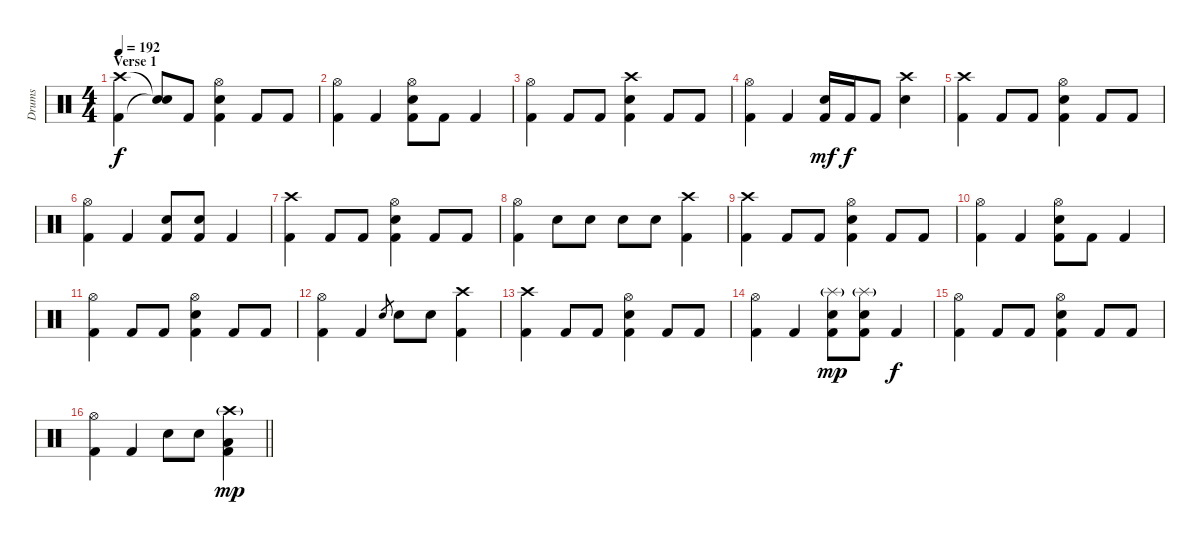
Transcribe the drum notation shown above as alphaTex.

\track ("Drums" "Drums") {instrument percussion}
\staff {score}
\articulation defaults
\ts (4 4)
\section ("" "Verse 1")
\tempo 192
\clef neutral
\ks c
("Crash high (hit)" "Kick (hit) 2").4{dy f} ("Snare (hit)"{t} "Snare (hit)"{t}).8 "Kick (hit) 2".8 ("Hi-Hat (open)" "Snare (hit) 2" "Kick (hit) 2").4 "Kick (hit) 2".8 "Kick (hit) 2".8 |
("Hi-Hat (open)" "Kick (hit) 2").4 "Kick (hit) 2".4 ("Hi-Hat (open)" "Snare (hit) 2" "Kick (hit) 2").8 "Kick (hit) 2".8 "Kick (hit) 2".4 |
("Hi-Hat (open)" "Kick (hit) 2").4 "Kick (hit) 2".8 "Kick (hit) 2".8 ("Crash high (hit)" "Snare (hit) 2" "Kick (hit) 2").4 "Kick (hit) 2".8 "Kick (hit) 2".8 |
("Hi-Hat (open)" "Kick (hit) 2").4 "Kick (hit) 2".4 ("Snare (hit) 2" "Kick (hit) 2").16{dy mf} "Kick (hit) 2".16{dy f} "Kick (hit) 2".8 ("Crash high (hit)" "Snare (hit) 2").4 |
("Crash high (hit)" "Kick (hit) 2").4 "Kick (hit) 2".8 "Kick (hit) 2".8 ("Hi-Hat (open)" "Snare (hit) 2" "Kick (hit) 2").4 "Kick (hit) 2".8 "Kick (hit) 2".8 |
("Hi-Hat (open)" "Kick (hit) 2").4 "Kick (hit) 2".4 ("Snare (hit) 2" "Kick (hit) 2").8 ("Snare (hit) 2" "Kick (hit) 2").8 "Kick (hit) 2".4 |
("Crash high (hit)" "Kick (hit) 2").4 "Kick (hit) 2".8 "Kick (hit) 2".8 ("Hi-Hat (open)" "Snare (hit) 2" "Kick (hit) 2").4 "Kick (hit) 2".8 "Kick (hit) 2".8 |
("Hi-Hat (open)" "Kick (hit) 2").4 "Snare (hit) 2".8 "Snare (hit) 2".8 "Snare (hit) 2".8 "Snare (hit) 2".8 ("Crash high (hit)" "Kick (hit) 2").4 |
("Crash high (hit)" "Kick (hit) 2").4 "Kick (hit) 2".8 "Kick (hit) 2".8 ("Hi-Hat (open)" "Snare (hit) 2" "Kick (hit) 2").4 "Kick (hit) 2".8 "Kick (hit) 2".8 |
("Hi-Hat (open)" "Kick (hit) 2").4 "Kick (hit) 2".4 ("Hi-Hat (open)" "Snare (hit) 2" "Kick (hit) 2").8 "Kick (hit) 2".8 "Kick (hit) 2".4 |
("Hi-Hat (open)" "Kick (hit) 2").4 "Kick (hit) 2".8 "Kick (hit) 2".8 ("Hi-Hat (open)" "Snare (hit) 2" "Kick (hit) 2").4 "Kick (hit) 2".8 "Kick (hit) 2".8 |
("Hi-Hat (open)" "Kick (hit) 2").4 "Kick (hit) 2".4 "Snare (hit) 2".8{gr} "Snare (hit) 2".8 "Snare (hit) 2".8 ("Crash high (hit)" "Kick (hit) 2").4 |
("Crash high (hit)" "Kick (hit) 2").4 "Kick (hit) 2".8 "Kick (hit) 2".8 ("Hi-Hat (open)" "Snare (hit) 2" "Kick (hit) 2").4 "Kick (hit) 2".8 "Kick (hit) 2".8 |
("Hi-Hat (open)" "Kick (hit) 2").4 "Kick (hit) 2".4 ("Splash (hit)"{g} "Snare (hit) 2" "Kick (hit) 2").8{dy mp} ("Splash (hit)"{g} "Snare (hit) 2" "Kick (hit) 2").8 "Kick (hit) 2".4{dy f} |
("Hi-Hat (open)" "Kick (hit) 2").4 "Kick (hit) 2".8 "Kick (hit) 2".8 ("Hi-Hat (open)" "Snare (hit) 2" "Kick (hit) 2").4 "Kick (hit) 2".8 "Kick (hit) 2".8 |
\barLineRight lightlight
("Hi-Hat (open)" "Kick (hit) 2").4 "Kick (hit) 2".4 "Snare (hit) 2".8 "Snare (hit) 2".8 ("Crash high (hit)"{g} "Low Tom (hit)" "Kick (hit) 2").4{dy mp}
